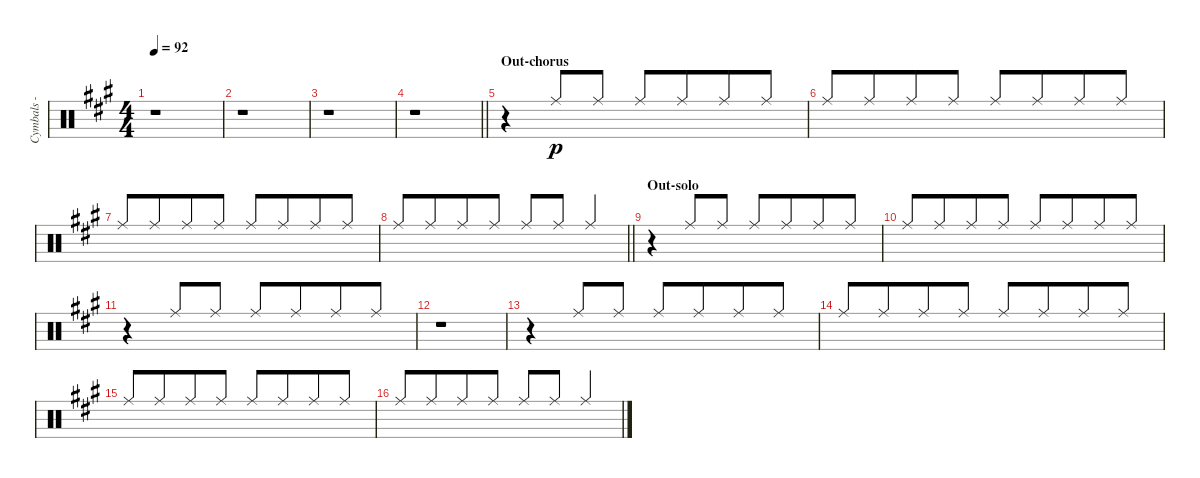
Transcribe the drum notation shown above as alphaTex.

\track ("Cymbals - ride" "Cymbals - ") {instrument percussion}
\staff {score}
\articulation defaults
\ts (4 4)
\tempo 92
\clef neutral
\ks f#minor
r.1{dy mp} |
r.1 |
r.1 |
\barLineRight lightlight
r.1 |
\section ("" "Out-chorus")
r.4 "Ride (middle)".8{dy p beam Up} "Ride (middle)".8{beam Up} "Ride (middle)".8{beam Up} "Ride (middle)".8{beam Up beam merge} "Ride (middle)".8{beam Up} "Ride (middle)".8{beam Up} |
"Ride (middle)".8{beam Up} "Ride (middle)".8{beam Up beam merge} "Ride (middle)".8{beam Up} "Ride (middle)".8{beam Up} "Ride (middle)".8{beam Up} "Ride (middle)".8{beam Up beam merge} "Ride (middle)".8{beam Up} "Ride (middle)".8{beam Up} |
"Ride (middle)".8{beam Up} "Ride (middle)".8{beam Up beam merge} "Ride (middle)".8{beam Up} "Ride (middle)".8{beam Up} "Ride (middle)".8{beam Up} "Ride (middle)".8{beam Up beam merge} "Ride (middle)".8{beam Up} "Ride (middle)".8{beam Up} |
\barLineRight lightlight "Ride (middle)".8{beam Up} "Ride (middle)".8{beam Up beam merge} "Ride (middle)".8{beam Up} "Ride (middle)".8{beam Up} "Ride (middle)".8{beam Up} "Ride (middle)".8{beam Up} "Ride (middle)".4{beam Up}
|
\section ("" "Out-solo")
r.4 "Ride (middle)".8{beam Up} "Ride (middle)".8{beam Up} "Ride (middle)".8{beam Up} "Ride (middle)".8{beam Up beam merge} "Ride (middle)".8{beam Up} "Ride (middle)".8{beam Up} |
"Ride (middle)".8{beam Up} "Ride (middle)".8{beam Up beam merge} "Ride (middle)".8{beam Up} "Ride (middle)".8{beam Up} "Ride (middle)".8{beam Up} "Ride (middle)".8{beam Up beam merge} "Ride (middle)".8{beam Up} "Ride (middle)".8{beam Up} |
r.4 "Ride (middle)".8{beam Up} "Ride (middle)".8{beam Up} "Ride (middle)".8{beam Up} "Ride (middle)".8{beam Up beam merge} "Ride (middle)".8{beam Up} "Ride (middle)".8{beam Up} |
r.1 |
r.4 "Ride (middle)".8{beam Up} "Ride (middle)".8{beam Up} "Ride (middle)".8{beam Up} "Ride (middle)".8{beam Up beam merge} "Ride (middle)".8{beam Up} "Ride (middle)".8{beam Up} |
"Ride (middle)".8{beam Up} "Ride (middle)".8{beam Up beam merge} "Ride (middle)".8{beam Up} "Ride (middle)".8{beam Up} "Ride (middle)".8{beam Up} "Ride (middle)".8{beam Up beam merge} "Ride (middle)".8{beam Up} "Ride (middle)".8{beam Up} |
"Ride (middle)".8{beam Up} "Ride (middle)".8{beam Up beam merge} "Ride (middle)".8{beam Up} "Ride (middle)".8{beam Up} "Ride (middle)".8{beam Up} "Ride (middle)".8{beam Up beam merge} "Ride (middle)".8{beam Up} "Ride (middle)".8{beam Up} |
"Ride (middle)".8{beam Up} "Ride (middle)".8{beam Up beam merge} "Ride (middle)".8{beam Up} "Ride (middle)".8{beam Up} "Ride (middle)".8{beam Up} "Ride (middle)".8{beam Up} "Ride (middle)".4{beam Up}
